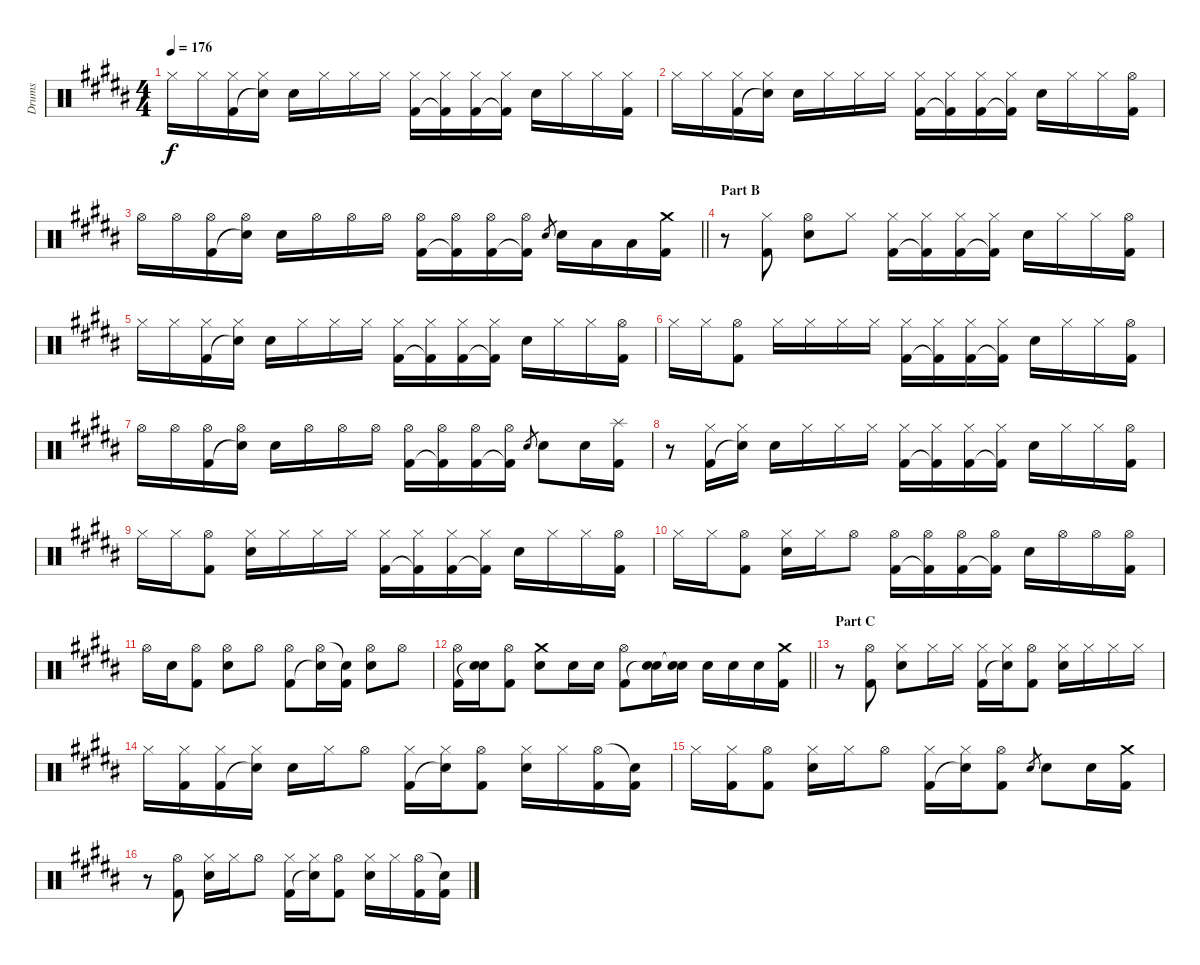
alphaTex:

\track ("Drums" "Drums") {instrument percussion}
\staff {score}
\articulation defaults
\ts (4 4)
\tempo 176
\clef neutral
\ks b "Hi-Hat (closed)".16{dy f} "Hi-Hat (closed)".16
("Hi-Hat (closed)" "Kick (hit) 2").16 ("Hi-Hat (closed)" "Snare (hit)"{t}).16 "Electric Snare (hit)".16 "Hi-Hat (closed)".16 "Hi-Hat (closed)".16 "Hi-Hat (closed)".16 ("Hi-Hat (closed)" "Kick (hit) 2").16 ("Hi-Hat (closed)" "Kick (hit) 2"{t}).16 ("Hi-Hat (closed)" "Kick (hit) 2").16 ("Hi-Hat (closed)" "Kick (hit) 2"{t}).16 "Electric Snare (hit)".16 "Hi-Hat (closed)".16 "Hi-Hat (closed)".16 ("Hi-Hat (closed)" "Kick (hit) 2").16 |
"Hi-Hat (closed)".16 "Hi-Hat (closed)".16 ("Hi-Hat (closed)" "Kick (hit) 2").16 ("Hi-Hat (closed)" "Snare (hit)"{t}).16 "Electric Snare (hit)".16 "Hi-Hat (closed)".16 "Hi-Hat (closed)".16 "Hi-Hat (closed)".16 ("Hi-Hat (closed)" "Kick (hit) 2").16 ("Hi-Hat (closed)" "Kick (hit) 2"{t}).16 ("Hi-Hat (closed)" "Kick (hit) 2").16 ("Hi-Hat (closed)" "Kick (hit) 2"{t}).16 "Electric Snare (hit)".16 "Hi-Hat (closed)".16 "Hi-Hat (closed)".16 ("Hi-Hat (open)" "Kick (hit) 2").16 |
\barLineRight lightlight "Hi-Hat (open)".16 "Hi-Hat (open)".16
("Hi-Hat (open)" "Kick (hit) 2").16 ("Hi-Hat (open)" "Snare (hit)"{t}).16 "Electric Snare (hit)".16 "Hi-Hat (open)".16 "Hi-Hat (open)".16 "Hi-Hat (open)".16 ("Hi-Hat (open)" "Kick (hit) 2").16 ("Hi-Hat (open)" "Kick (hit) 2"{t}).16 ("Hi-Hat (open)" "Kick (hit) 2").16 ("Hi-Hat (open)" "Kick (hit) 2"{t}).16 "Electric Snare (hit)".8{gr} "Electric Snare (hit)".16 "Low Tom (hit)".16 "Low Tom (hit)".16 ("Crash medium (hit)" "Kick (hit) 2").16 |
\section ("" "Part B")
r.8 ("Hi-Hat (closed)" "Kick (hit) 2").8 ("Hi-Hat (open)" "Electric Snare (hit)").8 "Hi-Hat (closed)".8 ("Hi-Hat (closed)" "Kick (hit) 2").16 ("Hi-Hat (closed)" "Kick (hit) 2"{t}).16 ("Hi-Hat (closed)" "Kick (hit) 2").16 ("Hi-Hat (closed)" "Kick (hit) 2"{t}).16 "Electric Snare (hit)".16 "Hi-Hat (closed)".16 "Hi-Hat (closed)".16 ("Hi-Hat (open)" "Kick (hit) 2").16 |
"Hi-Hat (closed)".16 "Hi-Hat (closed)".16 ("Hi-Hat (closed)" "Kick (hit) 2").16 ("Hi-Hat (closed)" "Snare (hit)"{t}).16 "Electric Snare (hit)".16 "Hi-Hat (closed)".16 "Hi-Hat (closed)".16 "Hi-Hat (closed)".16 ("Hi-Hat (closed)" "Kick (hit) 2").16 ("Hi-Hat (closed)" "Kick (hit) 2"{t}).16 ("Hi-Hat (closed)" "Kick (hit) 2").16 ("Hi-Hat (closed)" "Kick (hit) 2"{t}).16 "Electric Snare (hit)".16 "Hi-Hat (closed)".16 "Hi-Hat (closed)".16 ("Hi-Hat (open)" "Kick (hit) 2").16 |
"Hi-Hat (closed)".16 "Hi-Hat (closed)".16 ("Hi-Hat (open)" "Kick (hit) 2").8 "Hi-Hat (closed)".16 "Hi-Hat (closed)".16 "Hi-Hat (closed)".16 "Hi-Hat (closed)".16 ("Hi-Hat (closed)" "Kick (hit) 2").16 ("Hi-Hat (closed)" "Kick (hit) 2"{t}).16 ("Hi-Hat (closed)" "Kick (hit) 2").16 ("Hi-Hat (closed)" "Kick (hit) 2"{t}).16 "Electric Snare (hit)".16 "Hi-Hat (closed)".16 "Hi-Hat (closed)".16 ("Hi-Hat (open)" "Kick (hit) 2").16 |
"Hi-Hat (open)".16 "Hi-Hat (open)".16 ("Hi-Hat (open)" "Kick (hit) 2").16 ("Hi-Hat (open)" "Snare (hit)"{t}).16 "Electric Snare (hit)".16 "Hi-Hat (open)".16 "Hi-Hat (open)".16 "Hi-Hat (open)".16 ("Hi-Hat (open)" "Kick (hit) 2").16 ("Hi-Hat (open)" "Kick (hit) 2"{t}).16 ("Hi-Hat (open)" "Kick (hit) 2").16 ("Hi-Hat (open)" "Kick (hit) 2"{t}).16 "Electric Snare (hit)".8{gr} "Electric Snare (hit)".8 "Electric Snare (hit)".16 ("Splash (hit)" "Kick (hit) 2").16 |
r.8 ("Hi-Hat (closed)" "Kick (hit) 2").16 ("Hi-Hat (closed)" "Snare (hit)"{t}).16 "Electric Snare (hit)".16 "Hi-Hat (closed)".16 "Hi-Hat (closed)".16 "Hi-Hat (closed)".16 ("Hi-Hat (closed)" "Kick (hit) 2").16 ("Hi-Hat (closed)" "Kick (hit) 2"{t}).16 ("Hi-Hat (closed)" "Kick (hit) 2").16 ("Hi-Hat (closed)" "Kick (hit) 2"{t}).16 "Electric Snare (hit)".16 "Hi-Hat (closed)".16 "Hi-Hat (closed)".16 ("Hi-Hat (open)" "Kick (hit) 2").16 |
"Hi-Hat (closed)".16 "Hi-Hat (closed)".16 ("Hi-Hat (open)" "Kick (hit) 2").8 ("Hi-Hat (closed)" "Electric Snare (hit)").16 "Hi-Hat (closed)".16 "Hi-Hat (closed)".16 "Hi-Hat (closed)".16 ("Hi-Hat (closed)" "Kick (hit) 2").16 ("Hi-Hat (closed)" "Kick (hit) 2"{t}).16 ("Hi-Hat (closed)" "Kick (hit) 2").16 ("Hi-Hat (closed)" "Kick (hit) 2"{t}).16 "Electric Snare (hit)".16 "Hi-Hat (closed)".16 "Hi-Hat (closed)".16 ("Hi-Hat (open)" "Kick (hit) 2").16 |
"Hi-Hat (closed)".16 "Hi-Hat (closed)".16 ("Hi-Hat (open)" "Kick (hit) 2").8 ("Hi-Hat (closed)" "Electric Snare (hit)").16 "Hi-Hat (closed)".16 "Hi-Hat (open)".8 ("Hi-Hat (open)" "Kick (hit) 2").16 ("Hi-Hat (open)" "Kick (hit) 2"{t}).16 ("Hi-Hat (open)" "Kick (hit) 2").16 ("Hi-Hat (open)" "Kick (hit) 2"{t}).16 "Electric Snare (hit)".16 "Hi-Hat (open)".16 "Hi-Hat (open)".16 ("Hi-Hat (open)" "Kick (hit) 2").16 |
"Hi-Hat (open)".16 "Electric Snare (hit)".16 ("Hi-Hat (open)" "Kick (hit) 2").8 ("Hi-Hat (open)" "Electric Snare (hit)").8 "Hi-Hat (open)".8 ("Hi-Hat (open)" "Kick (hit) 2").8 ("Hi-Hat (open)" "Snare (hit)"{t}).16 ("Snare (hit)"{t} "Kick (hit) 2").16 ("Hi-Hat (open)" "Electric Snare (hit)").8 "Hi-Hat (open)".8 |
\barLineRight lightlight
("Hi-Hat (open)" "Kick (hit) 2").16 ("Electric Snare (hit)" "Snare (hit)"{t}).16 ("Hi-Hat (open)" "Kick (hit) 2").8 ("Crash medium (hit)" "Electric Snare (hit)").8 "Electric Snare (hit)".16 "Electric Snare (hit)".16 ("Hi-Hat (open)" "Kick (hit) 2").8 ("Electric Snare (hit)" "Snare (hit)"{t}).16 ("Electric Snare (hit)" "Snare (hit)"{t}).16 "Electric Snare (hit)".16 "Electric Snare (hit)".16 "Electric Snare (hit)".16 ("Crash medium (hit)" "Kick (hit) 2").16 |
\section ("" "Part C")
r.8 ("Hi-Hat (open)" "Kick (hit) 2").8 ("Hi-Hat (closed)" "Electric Snare (hit)").8 "Hi-Hat (closed)".16 "Hi-Hat (closed)".16 ("Hi-Hat (closed)" "Kick (hit) 2").16 ("Hi-Hat (closed)" "Snare (hit)"{t}).16 ("Hi-Hat (open)" "Kick (hit) 2").8 ("Hi-Hat (closed)" "Electric Snare (hit)").16 "Hi-Hat (closed)".16 "Hi-Hat (closed)".16 "Hi-Hat (closed)".16 |
"Hi-Hat (closed)".16 ("Hi-Hat (closed)" "Kick (hit) 2").16 ("Hi-Hat (closed)" "Kick (hit) 2").16 ("Hi-Hat (closed)" "Snare (hit)"{t}).16 "Electric Snare (hit)".16 "Hi-Hat (closed)".16 "Hi-Hat (open)".8 ("Hi-Hat (closed)" "Kick (hit) 2").16 ("Hi-Hat (closed)" "Snare (hit)"{t}).16 ("Hi-Hat (open)" "Kick (hit) 2").8 ("Hi-Hat (closed)" "Electric Snare (hit)").16 "Hi-Hat (closed)".16 ("Hi-Hat (open)" "Kick (hit) 2").16 ("Snare (hit)"{t} "Kick (hit) 2").16 |
"Hi-Hat (closed)".16 ("Hi-Hat (closed)" "Kick (hit) 2").16 ("Hi-Hat (open)" "Kick (hit) 2").8 ("Hi-Hat (closed)" "Electric Snare (hit)").16 "Hi-Hat (closed)".16 "Hi-Hat (open)".8 ("Hi-Hat (closed)" "Kick (hit) 2").16 ("Hi-Hat (closed)" "Snare (hit)"{t}).16 ("Hi-Hat (open)" "Kick (hit) 2").8 "Electric Snare (hit)".8{gr} "Electric Snare (hit)".8 "Electric Snare (hit)".16 ("Crash medium (hit)" "Kick (hit) 2").16 |
r.8 ("Hi-Hat (open)" "Kick (hit) 2").8 ("Hi-Hat (closed)" "Electric Snare (hit)").16 "Hi-Hat (closed)".16 "Hi-Hat (open)".8 ("Hi-Hat (closed)" "Kick (hit) 2").16 ("Hi-Hat (closed)" "Snare (hit)"{t}).16 ("Hi-Hat (open)" "Kick (hit) 2").8 ("Hi-Hat (closed)" "Electric Snare (hit)").16 "Hi-Hat (closed)".16 ("Hi-Hat (open)" "Kick (hit) 2").16 ("Snare (hit)"{t} "Kick (hit) 2").16
